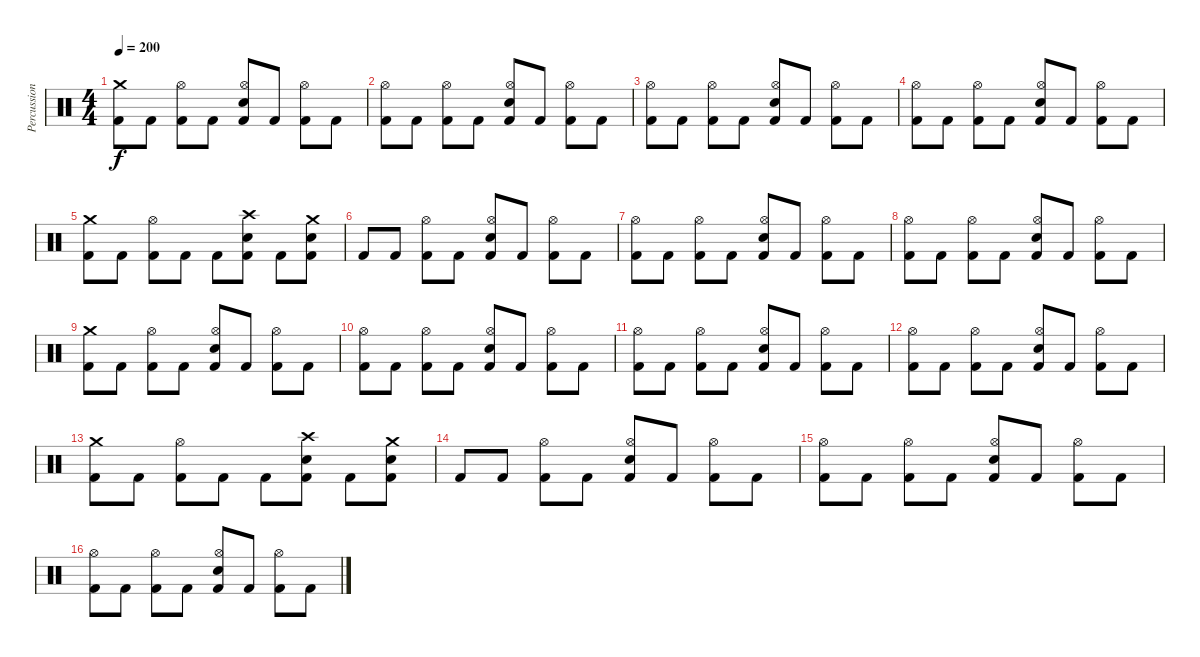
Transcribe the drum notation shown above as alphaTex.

\track ("Percussions" "Percussion") {instrument percussion}
\staff {score}
\articulation defaults
\ts (4 4)
\tempo 200
\tempo 230
\tempo 200
\clef neutral
\ks c
("Crash medium (hit)" "Kick (hit) 2").8{dy f} "Kick (hit) 2".8 ("Hi-Hat (open)" "Kick (hit) 2").8 "Kick (hit) 2".8 ("Hi-Hat (open)" "Electric Snare (hit)" "Kick (hit) 2").8 "Kick (hit) 2".8 ("Hi-Hat (open)" "Kick (hit) 2").8 "Kick (hit) 2".8 |
("Hi-Hat (open)" "Kick (hit) 2").8 "Kick (hit) 2".8 ("Hi-Hat (open)" "Kick (hit) 2").8 "Kick (hit) 2".8 ("Hi-Hat (open)" "Electric Snare (hit)" "Kick (hit) 2").8 "Kick (hit) 2".8 ("Hi-Hat (open)" "Kick (hit) 2").8 "Kick (hit) 2".8 |
("Hi-Hat (open)" "Kick (hit) 2").8 "Kick (hit) 2".8 ("Hi-Hat (open)" "Kick (hit) 2").8 "Kick (hit) 2".8 ("Hi-Hat (open)" "Electric Snare (hit)" "Kick (hit) 2").8 "Kick (hit) 2".8 ("Hi-Hat (open)" "Kick (hit) 2").8 "Kick (hit) 2".8 |
("Hi-Hat (open)" "Kick (hit) 2").8 "Kick (hit) 2".8 ("Hi-Hat (open)" "Kick (hit) 2").8 "Kick (hit) 2".8 ("Hi-Hat (open)" "Electric Snare (hit)" "Kick (hit) 2").8 "Kick (hit) 2".8 ("Hi-Hat (open)" "Kick (hit) 2").8 "Kick (hit) 2".8 |
("Crash medium (hit)" "Kick (hit) 2").8 "Kick (hit) 2".8 ("Hi-Hat (open)" "Kick (hit) 2").8 "Kick (hit) 2".8 "Kick (hit) 2".8 ("Crash high (hit)" "Electric Snare (hit)" "Kick (hit) 2").8 "Kick (hit) 2".8 ("Crash medium (hit)" "Electric Snare (hit)" "Kick (hit) 2").8 |
"Kick (hit) 2".8 "Kick (hit) 2".8 ("Hi-Hat (open)" "Kick (hit) 2").8 "Kick (hit) 2".8 ("Hi-Hat (open)" "Electric Snare (hit)" "Kick (hit) 2").8 "Kick (hit) 2".8 ("Hi-Hat (open)" "Kick (hit) 2").8 "Kick (hit) 2".8 |
("Hi-Hat (open)" "Kick (hit) 2").8 "Kick (hit) 2".8 ("Hi-Hat (open)" "Kick (hit) 2").8 "Kick (hit) 2".8 ("Hi-Hat (open)" "Electric Snare (hit)" "Kick (hit) 2").8 "Kick (hit) 2".8 ("Hi-Hat (open)" "Kick (hit) 2").8 "Kick (hit) 2".8 |
("Hi-Hat (open)" "Kick (hit) 2").8 "Kick (hit) 2".8 ("Hi-Hat (open)" "Kick (hit) 2").8 "Kick (hit) 2".8 ("Hi-Hat (open)" "Electric Snare (hit)" "Kick (hit) 2").8 "Kick (hit) 2".8 ("Hi-Hat (open)" "Kick (hit) 2").8 "Kick (hit) 2".8 |
("Crash medium (hit)" "Kick (hit) 2").8 "Kick (hit) 2".8 ("Hi-Hat (open)" "Kick (hit) 2").8 "Kick (hit) 2".8 ("Hi-Hat (open)" "Electric Snare (hit)" "Kick (hit) 2").8 "Kick (hit) 2".8 ("Hi-Hat (open)" "Kick (hit) 2").8 "Kick (hit) 2".8 |
("Hi-Hat (open)" "Kick (hit) 2").8 "Kick (hit) 2".8 ("Hi-Hat (open)" "Kick (hit) 2").8 "Kick (hit) 2".8 ("Hi-Hat (open)" "Electric Snare (hit)" "Kick (hit) 2").8 "Kick (hit) 2".8 ("Hi-Hat (open)" "Kick (hit) 2").8 "Kick (hit) 2".8 |
("Hi-Hat (open)" "Kick (hit) 2").8 "Kick (hit) 2".8 ("Hi-Hat (open)" "Kick (hit) 2").8 "Kick (hit) 2".8 ("Hi-Hat (open)" "Electric Snare (hit)" "Kick (hit) 2").8 "Kick (hit) 2".8 ("Hi-Hat (open)" "Kick (hit) 2").8 "Kick (hit) 2".8 |
("Hi-Hat (open)" "Kick (hit) 2").8 "Kick (hit) 2".8 ("Hi-Hat (open)" "Kick (hit) 2").8 "Kick (hit) 2".8 ("Hi-Hat (open)" "Electric Snare (hit)" "Kick (hit) 2").8 "Kick (hit) 2".8 ("Hi-Hat (open)" "Kick (hit) 2").8 "Kick (hit) 2".8 |
("Crash medium (hit)" "Kick (hit) 2").8 "Kick (hit) 2".8 ("Hi-Hat (open)" "Kick (hit) 2").8 "Kick (hit) 2".8 "Kick (hit) 2".8 ("Crash high (hit)" "Electric Snare (hit)" "Kick (hit) 2").8 "Kick (hit) 2".8 ("Crash medium (hit)" "Electric Snare (hit)" "Kick (hit) 2").8 |
"Kick (hit) 2".8 "Kick (hit) 2".8 ("Hi-Hat (open)" "Kick (hit) 2").8 "Kick (hit) 2".8 ("Hi-Hat (open)" "Electric Snare (hit)" "Kick (hit) 2").8 "Kick (hit) 2".8 ("Hi-Hat (open)" "Kick (hit) 2").8 "Kick (hit) 2".8 |
("Hi-Hat (open)" "Kick (hit) 2").8 "Kick (hit) 2".8 ("Hi-Hat (open)" "Kick (hit) 2").8 "Kick (hit) 2".8 ("Hi-Hat (open)" "Electric Snare (hit)" "Kick (hit) 2").8 "Kick (hit) 2".8 ("Hi-Hat (open)" "Kick (hit) 2").8 "Kick (hit) 2".8 |
("Hi-Hat (open)" "Kick (hit) 2").8 "Kick (hit) 2".8 ("Hi-Hat (open)" "Kick (hit) 2").8 "Kick (hit) 2".8 ("Hi-Hat (open)" "Electric Snare (hit)" "Kick (hit) 2").8 "Kick (hit) 2".8 ("Hi-Hat (open)" "Kick (hit) 2").8 "Kick (hit) 2".8
